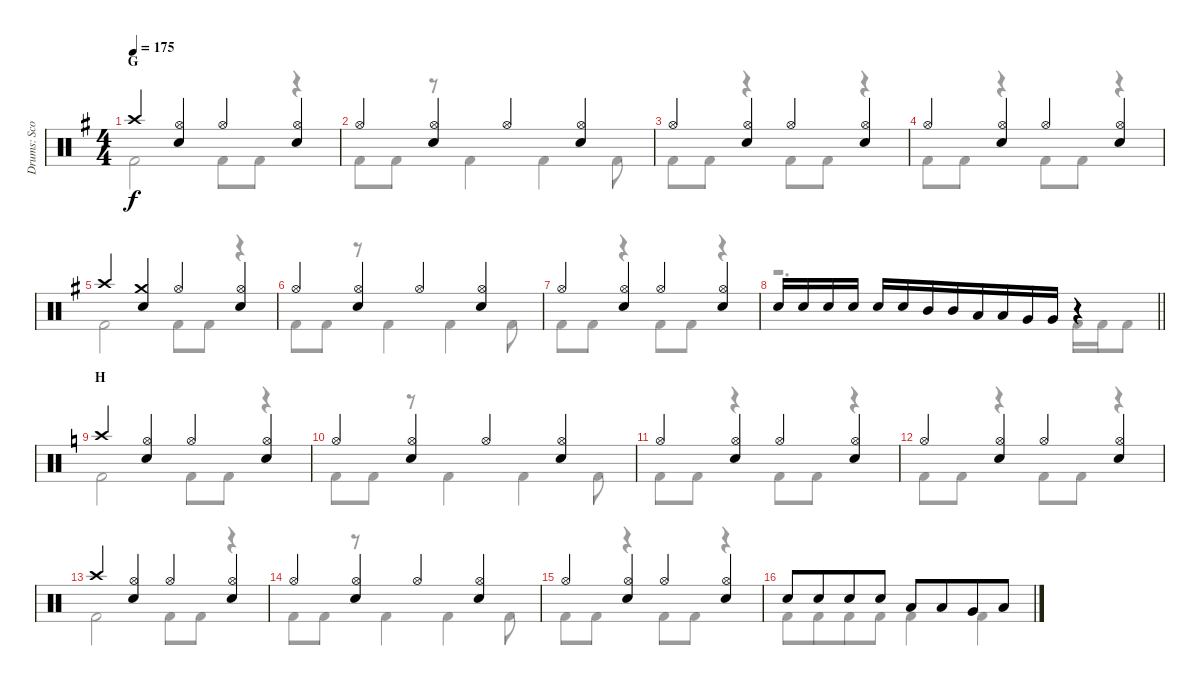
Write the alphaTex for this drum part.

\track ("Drums: Scott" "Drums: Sco") {instrument percussion}
\staff {score}
\articulation defaults
\voice
\ts (4 4)
\section ("" "G")
\tempo 175
\clef neutral
\ks g "Crash high (hit)".4{dy f}
("Hi-Hat (open)" "Snare (hit) 2").4 "Hi-Hat (open)".4 ("Hi-Hat (open)" "Snare (hit) 2").4 |
"Hi-Hat (open)".4 ("Hi-Hat (open)" "Snare (hit) 2").4 "Hi-Hat (open)".4 ("Hi-Hat (open)" "Snare (hit) 2").4 |
"Hi-Hat (open)".4 ("Hi-Hat (open)" "Snare (hit) 2").4 "Hi-Hat (open)".4 ("Hi-Hat (open)" "Snare (hit) 2").4 |
"Hi-Hat (open)".4 ("Hi-Hat (open)" "Snare (hit) 2").4 "Hi-Hat (open)".4 ("Hi-Hat (open)" "Snare (hit) 2").4 |
"Crash high (hit)".4 ("Crash medium (hit)" "Snare (hit) 2").4 "Hi-Hat (open)".4 ("Hi-Hat (open)" "Snare (hit) 2").4 |
"Hi-Hat (open)".4 ("Hi-Hat (open)" "Snare (hit) 2").4 "Hi-Hat (open)".4 ("Hi-Hat (open)" "Snare (hit) 2").4 |
"Hi-Hat (open)".4 ("Hi-Hat (open)" "Snare (hit) 2").4 "Hi-Hat (open)".4 ("Hi-Hat (open)" "Snare (hit) 2").4 |
\barLineRight lightlight "Snare (hit) 2".16 "Snare (hit) 2".16 "Snare (hit) 2".16 "Snare (hit) 2".16 "Snare (hit) 2".16 "Snare (hit) 2".16 "Mid Tom (hit)".16 "Mid Tom (hit)".16{beam merge} "Low Tom (hit)".16 "Low Tom (hit)".16 "Very Low Tom (hit)".16 "Very Low Tom (hit)".16
r.4 |
\section ("" "H")
\ks c "Crash high (hit)".4
("Hi-Hat (open)" "Snare (hit) 2").4 "Hi-Hat (open)".4 ("Hi-Hat (open)" "Snare (hit) 2").4 |
"Hi-Hat (open)".4 ("Hi-Hat (open)" "Snare (hit) 2").4 "Hi-Hat (open)".4 ("Hi-Hat (open)" "Snare (hit) 2").4 |
"Hi-Hat (open)".4 ("Hi-Hat (open)" "Snare (hit) 2").4 "Hi-Hat (open)".4 ("Hi-Hat (open)" "Snare (hit) 2").4 |
"Hi-Hat (open)".4 ("Hi-Hat (open)" "Snare (hit) 2").4 "Hi-Hat (open)".4 ("Hi-Hat (open)" "Snare (hit) 2").4 |
"Crash high (hit)".4 ("Hi-Hat (open)" "Snare (hit) 2").4 "Hi-Hat (open)".4 ("Hi-Hat (open)" "Snare (hit) 2").4 |
"Hi-Hat (open)".4 ("Hi-Hat (open)" "Snare (hit) 2").4 "Hi-Hat (open)".4 ("Hi-Hat (open)" "Snare (hit) 2").4 |
"Hi-Hat (open)".4 ("Hi-Hat (open)" "Snare (hit) 2").4 "Hi-Hat (open)".4 ("Hi-Hat (open)" "Snare (hit) 2").4 |
"Snare (hit) 2".8 "Snare (hit) 2".8{beam merge} "Snare (hit) 2".8 "Snare (hit) 2".8 "Low Tom (hit)".8 "Low Tom (hit)".8{beam merge} "Very Low Tom (hit)".8 "Low Floor Tom (hit)".8
\voice
\clef neutral
\ottava regular
\simile none
\ks g "Kick (hit) 2".2{dy f} "Kick (hit) 2".8 "Kick (hit) 2".8
r.4 |
"Kick (hit) 2".8 "Kick (hit) 2".8 r.8 "Kick (hit) 2".4 "Kick (hit) 2".4 "Kick (hit) 2".8 |
"Kick (hit) 2".8 "Kick (hit) 2".8 r.4 "Kick (hit) 2".8 "Kick (hit) 2".8 r.4 |
"Kick (hit) 2".8 "Kick (hit) 2".8 r.4 "Kick (hit) 2".8 "Kick (hit) 2".8 r.4 |
"Kick (hit) 2".2 "Kick (hit) 2".8 "Kick (hit) 2".8 r.4 |
"Kick (hit) 2".8 "Kick (hit) 2".8 r.8 "Kick (hit) 2".4 "Kick (hit) 2".4 "Kick (hit) 2".8 |
"Kick (hit) 2".8 "Kick (hit) 2".8 r.4 "Kick (hit) 2".8 "Kick (hit) 2".8 r.4 |
\barLineRight lightlight
r.2{d} "Kick (hit) 2".16 "Kick (hit) 2".16 "Kick (hit) 2".8 |
\ks c "Kick (hit) 2".2 "Kick (hit) 2".8 "Kick (hit) 2".8
r.4 |
"Kick (hit) 2".8 "Kick (hit) 2".8 r.8 "Kick (hit) 2".4 "Kick (hit) 2".4 "Kick (hit) 2".8 |
"Kick (hit) 2".8 "Kick (hit) 2".8 r.4 "Kick (hit) 2".8 "Kick (hit) 2".8 r.4 |
"Kick (hit) 2".8 "Kick (hit) 2".8 r.4 "Kick (hit) 2".8 "Kick (hit) 2".8 r.4 |
"Kick (hit) 2".2 "Kick (hit) 2".8 "Kick (hit) 2".8 r.4 |
"Kick (hit) 2".8 "Kick (hit) 2".8 r.8 "Kick (hit) 2".4 "Kick (hit) 2".4 "Kick (hit) 2".8 |
"Kick (hit) 2".8 "Kick (hit) 2".8 r.4 "Kick (hit) 2".8 "Kick (hit) 2".8 r.4 |
"Kick (hit) 2".8 "Kick (hit) 2".8{beam merge} "Kick (hit) 2".8 "Kick (hit) 2".8 "Kick (hit) 2".4 "Kick (hit) 2".4
